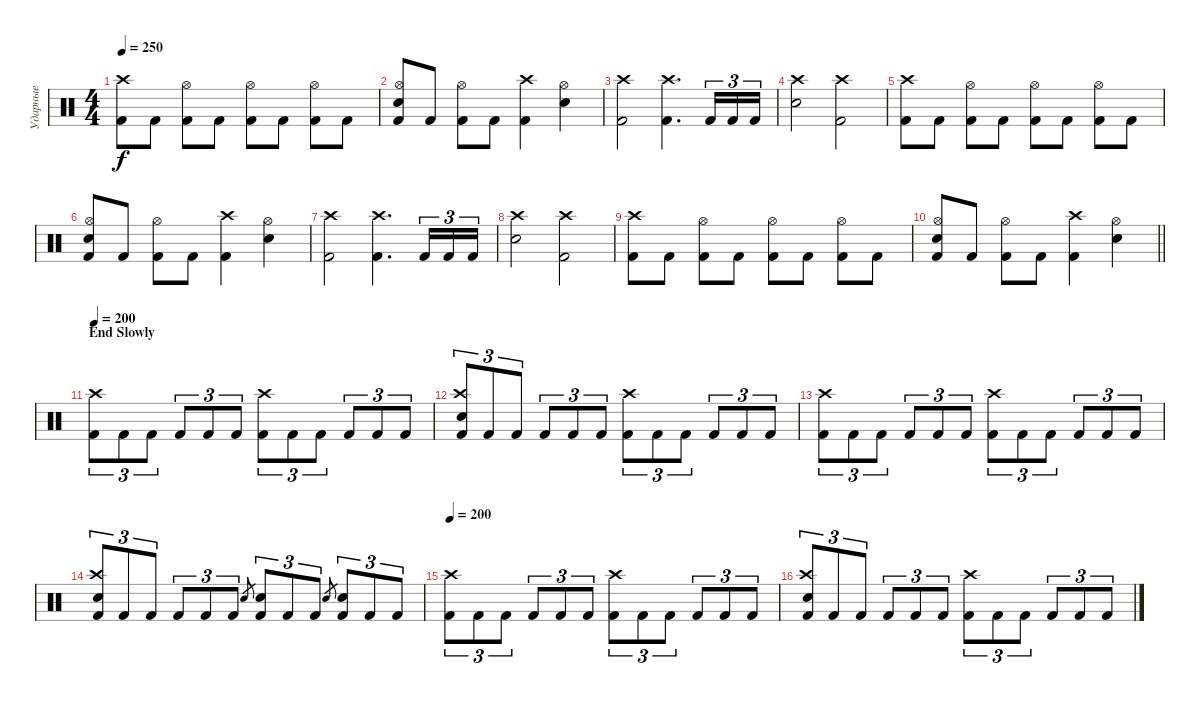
\track ("Ударные" "Ударные") {instrument percussion}
\staff {score}
\articulation defaults
\ts (4 4)
\tempo 250
\clef neutral
\ks c
("Kick (hit) 2" "Crash high (hit)").8{dy f} "Kick (hit) 2".8 ("Kick (hit) 2" "Hi-Hat (open)").8 "Kick (hit) 2".8 ("Kick (hit) 2" "Hi-Hat (open)").8 "Kick (hit) 2".8 ("Kick (hit) 2" "Hi-Hat (open)").8 "Kick (hit) 2".8 |
("Electric Snare (hit)" "Kick (hit) 2" "Hi-Hat (open)").8 "Kick (hit) 2".8 ("Kick (hit) 2" "Hi-Hat (open)").8 "Kick (hit) 2".8 ("Kick (hit) 2" "Crash high (hit)").4 ("Electric Snare (hit)" "Hi-Hat (open)").4 |
("Crash high (hit)" "Kick (hit) 2").2 ("Kick (hit) 2" "Crash high (hit)").4{d} "Kick (hit) 2".16{tu (3 2)} "Kick (hit) 2".16{tu (3 2)} "Kick (hit) 2".16{tu (3 2)} |
("Crash high (hit)" "Electric Snare (hit)").2 ("Crash high (hit)" "Kick (hit) 2").2 |
("Kick (hit) 2" "Crash high (hit)").8 "Kick (hit) 2".8 ("Kick (hit) 2" "Hi-Hat (open)").8 "Kick (hit) 2".8 ("Kick (hit) 2" "Hi-Hat (open)").8 "Kick (hit) 2".8 ("Kick (hit) 2" "Hi-Hat (open)").8 "Kick (hit) 2".8 |
("Electric Snare (hit)" "Kick (hit) 2" "Hi-Hat (open)").8 "Kick (hit) 2".8 ("Kick (hit) 2" "Hi-Hat (open)").8 "Kick (hit) 2".8 ("Kick (hit) 2" "Crash high (hit)").4 ("Electric Snare (hit)" "Hi-Hat (open)").4 |
("Crash high (hit)" "Kick (hit) 2").2 ("Kick (hit) 2" "Crash high (hit)").4{d} "Kick (hit) 2".16{tu (3 2)} "Kick (hit) 2".16{tu (3 2)} "Kick (hit) 2".16{tu (3 2)} |
("Crash high (hit)" "Electric Snare (hit)").2 ("Crash high (hit)" "Kick (hit) 2").2 |
("Kick (hit) 2" "Crash high (hit)").8 "Kick (hit) 2".8 ("Kick (hit) 2" "Hi-Hat (open)").8 "Kick (hit) 2".8 ("Kick (hit) 2" "Hi-Hat (open)").8 "Kick (hit) 2".8 ("Kick (hit) 2" "Hi-Hat (open)").8 "Kick (hit) 2".8 |
\barLineRight lightlight
("Electric Snare (hit)" "Kick (hit) 2" "Hi-Hat (open)").8 "Kick (hit) 2".8 ("Kick (hit) 2" "Hi-Hat (open)").8 "Kick (hit) 2".8 ("Kick (hit) 2" "Crash high (hit)").4 ("Electric Snare (hit)" "Hi-Hat (open)").4 |
\section ("" "End Slowly")
\tempo 200
("Kick (hit) 2" "Crash high (hit)").8{tu (3 2)} "Kick (hit) 2".8{tu (3 2)} "Kick (hit) 2".8{tu (3 2)} "Kick (hit) 2".8{tu (3 2)} "Kick (hit) 2".8{tu (3 2)} "Kick (hit) 2".8{tu (3 2)} ("Kick (hit) 2" "Crash high (hit)").8{tu (3 2)} "Kick (hit) 2".8{tu (3 2)} "Kick (hit) 2".8{tu (3 2)} "Kick (hit) 2".8{tu (3 2)} "Kick (hit) 2".8{tu (3 2)} "Kick (hit) 2".8{tu (3 2)} |
("Kick (hit) 2" "Crash high (hit)" "Electric Snare (hit)").8{tu (3 2)} "Kick (hit) 2".8{tu (3 2)} "Kick (hit) 2".8{tu (3 2)} "Kick (hit) 2".8{tu (3 2)} "Kick (hit) 2".8{tu (3 2)} "Kick (hit) 2".8{tu (3 2)} ("Kick (hit) 2" "Crash high (hit)").8{tu (3 2)} "Kick (hit) 2".8{tu (3 2)} "Kick (hit) 2".8{tu (3 2)} "Kick (hit) 2".8{tu (3 2)} "Kick (hit) 2".8{tu (3 2)} "Kick (hit) 2".8{tu (3 2)} |
("Kick (hit) 2" "Crash high (hit)").8{tu (3 2)} "Kick (hit) 2".8{tu (3 2)} "Kick (hit) 2".8{tu (3 2)} "Kick (hit) 2".8{tu (3 2)} "Kick (hit) 2".8{tu (3 2)} "Kick (hit) 2".8{tu (3 2)} ("Kick (hit) 2" "Crash high (hit)").8{tu (3 2)} "Kick (hit) 2".8{tu (3 2)} "Kick (hit) 2".8{tu (3 2)} "Kick (hit) 2".8{tu (3 2)} "Kick (hit) 2".8{tu (3 2)} "Kick (hit) 2".8{tu (3 2)} |
("Kick (hit) 2" "Crash high (hit)" "Electric Snare (hit)").8{tu (3 2)} "Kick (hit) 2".8{tu (3 2)} "Kick (hit) 2".8{tu (3 2)} "Kick (hit) 2".8{tu (3 2)} "Kick (hit) 2".8{tu (3 2)} "Kick (hit) 2".8{tu (3 2)} "Electric Snare (hit)".8{gr} ("Kick (hit) 2" "Electric Snare (hit)").8{tu (3 2)} "Kick (hit) 2".8{tu (3 2)} "Kick (hit) 2".8{tu (3 2)} "Electric Snare (hit)".8{gr} ("Kick (hit) 2" "Electric Snare (hit)").8{tu (3 2)} "Kick (hit) 2".8{tu (3 2)} "Kick (hit) 2".8{tu (3 2)} |
\tempo 200
("Kick (hit) 2" "Crash high (hit)").8{tu (3 2)} "Kick (hit) 2".8{tu (3 2)} "Kick (hit) 2".8{tu (3 2)} "Kick (hit) 2".8{tu (3 2)} "Kick (hit) 2".8{tu (3 2)} "Kick (hit) 2".8{tu (3 2)} ("Kick (hit) 2" "Crash high (hit)").8{tu (3 2)} "Kick (hit) 2".8{tu (3 2)} "Kick (hit) 2".8{tu (3 2)} "Kick (hit) 2".8{tu (3 2)} "Kick (hit) 2".8{tu (3 2)} "Kick (hit) 2".8{tu (3 2)} |
("Kick (hit) 2" "Crash high (hit)" "Electric Snare (hit)").8{tu (3 2)} "Kick (hit) 2".8{tu (3 2)} "Kick (hit) 2".8{tu (3 2)} "Kick (hit) 2".8{tu (3 2)} "Kick (hit) 2".8{tu (3 2)} "Kick (hit) 2".8{tu (3 2)} ("Kick (hit) 2" "Crash high (hit)").8{tu (3 2)} "Kick (hit) 2".8{tu (3 2)} "Kick (hit) 2".8{tu (3 2)} "Kick (hit) 2".8{tu (3 2)} "Kick (hit) 2".8{tu (3 2)} "Kick (hit) 2".8{tu (3 2)}
